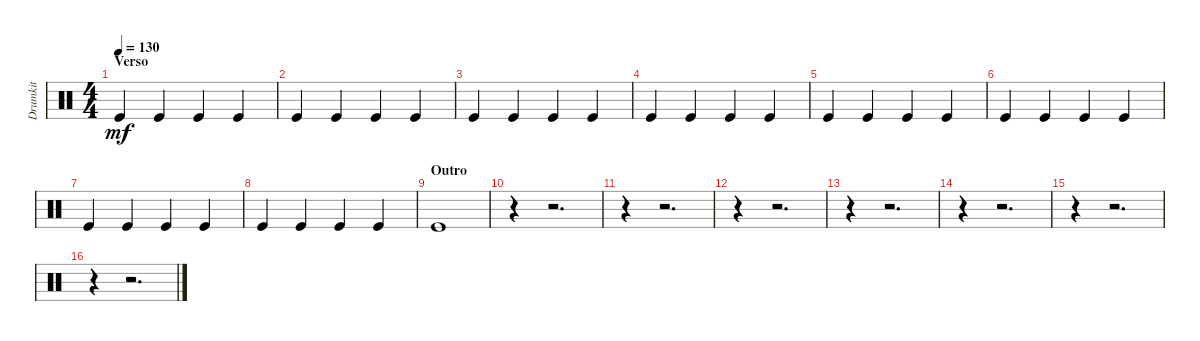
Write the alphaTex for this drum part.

\track ("Drumkit" "Drumkit") {instrument percussion}
\staff {score}
\articulation defaults
\ts (4 4)
\section ("" "Verso")
\tempo 130
\clef neutral
\ks c "Kick (hit)".4{dy mf} "Kick (hit)".4 "Kick (hit)".4 "Kick (hit)".4
|
"Kick (hit)".4 "Kick (hit)".4 "Kick (hit)".4 "Kick (hit)".4 |
"Kick (hit)".4 "Kick (hit)".4 "Kick (hit)".4 "Kick (hit)".4 |
"Kick (hit)".4 "Kick (hit)".4 "Kick (hit)".4 "Kick (hit)".4 |
"Kick (hit)".4 "Kick (hit)".4 "Kick (hit)".4 "Kick (hit)".4 |
"Kick (hit)".4 "Kick (hit)".4 "Kick (hit)".4 "Kick (hit)".4 |
"Kick (hit)".4 "Kick (hit)".4 "Kick (hit)".4 "Kick (hit)".4 |
"Kick (hit)".4 "Kick (hit)".4 "Kick (hit)".4 "Kick (hit)".4 |
\section ("" "Outro")
"Kick (hit)".1 |
r.4 r.2{d} |
r.4 r.2{d} |
r.4 r.2{d} |
r.4 r.2{d} |
r.4 r.2{d} |
r.4 r.2{d} |
r.4 r.2{d}
